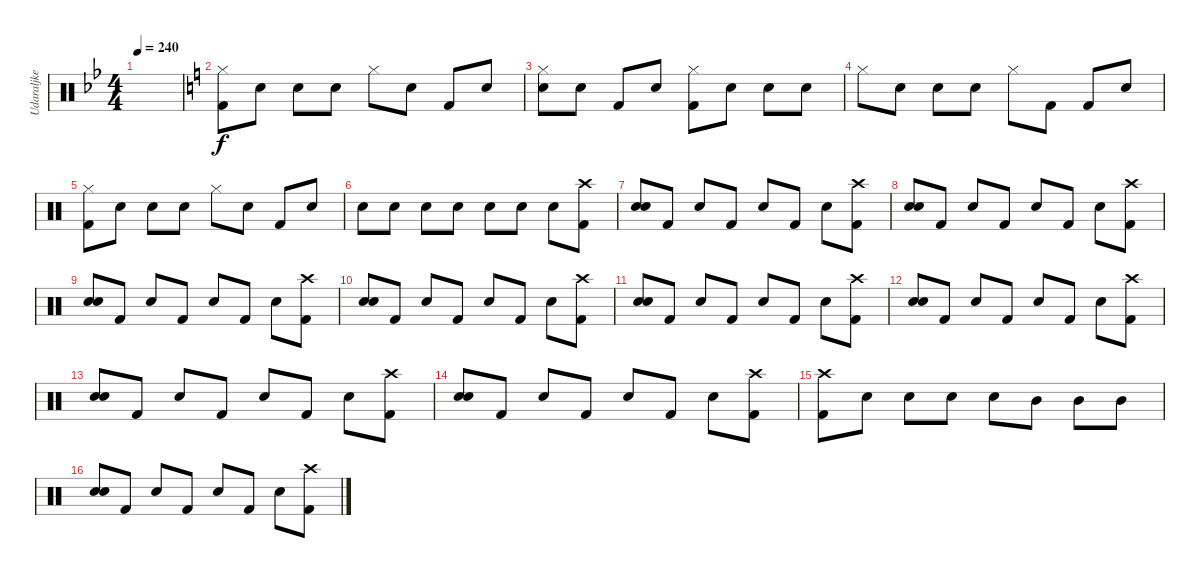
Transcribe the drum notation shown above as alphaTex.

\track ("Udaraljke" "Udaraljke") {instrument percussion}
\staff {score}
\articulation defaults
\ts (4 4)
\tempo 240
\clef neutral
\ks bb
|
\ks c
("Kick (hit) 2" "Hi-Hat (closed)").8 "Snare (hit)"{x}.8 "Snare (hit)"{x}.8 "Snare (hit)"{x}.8 "Hi-Hat (closed)".8 "Snare (hit)"{x}.8 "Kick (hit) 2"{x}.8 "Snare (hit)"{x}.8 |
("Snare (hit) 2" "Hi-Hat (closed)").8 "Snare (hit)"{x}.8 "Kick (hit) 2".8 "Snare (hit)"{x}.8 ("Kick (hit) 2" "Hi-Hat (closed)").8 "Snare (hit)"{x}.8 "Snare (hit)"{x}.8 "Snare (hit)"{x}.8 |
"Hi-Hat (closed)".8 "Snare (hit)"{x}.8 "Snare (hit)"{x}.8 "Snare (hit)"{x}.8 "Hi-Hat (closed)".8 "Kick (hit) 2"{x}.8 "Kick (hit) 2".8 "Snare (hit)"{x}.8 |
("Kick (hit) 2" "Hi-Hat (closed)").8 "Snare (hit)"{x}.8 "Snare (hit)"{x}.8 "Snare (hit)"{x}.8 "Hi-Hat (closed)".8 "Snare (hit)"{x}.8 "Kick (hit) 2"{x}.8 "Snare (hit)"{x}.8 |
"Snare (hit) 2".8 "Snare (hit) 2".8 "Snare (hit) 2".8 "Snare (hit) 2".8 "Snare (hit) 2".8 "Snare (hit) 2".8 "Snare (hit) 2".8 ("Kick (hit) 2" "Crash high (hit)").8 |
("Snare (hit)"{x} "Snare (hit) 2").8 "Kick (hit) 2".8 "Snare (hit) 2".8 "Kick (hit) 2".8 "Snare (hit) 2".8 "Kick (hit) 2".8 "Snare (hit) 2".8 ("Kick (hit) 2" "Crash high (hit)").8 |
("Snare (hit)"{x} "Snare (hit) 2").8 "Kick (hit) 2".8 "Snare (hit) 2".8 "Kick (hit) 2".8 "Snare (hit) 2".8 "Kick (hit) 2".8 "Snare (hit) 2".8 ("Kick (hit) 2" "Crash high (hit)").8 |
("Snare (hit)"{x} "Snare (hit) 2").8 "Kick (hit) 2".8 "Snare (hit) 2".8 "Kick (hit) 2".8 "Snare (hit) 2".8 "Kick (hit) 2".8 "Snare (hit) 2".8 ("Kick (hit) 2" "Crash high (hit)").8 |
("Snare (hit)"{x} "Snare (hit) 2").8 "Kick (hit) 2".8 "Snare (hit) 2".8 "Kick (hit) 2".8 "Snare (hit) 2".8 "Kick (hit) 2".8 "Snare (hit) 2".8 ("Kick (hit) 2" "Crash high (hit)").8 |
("Snare (hit)"{x} "Snare (hit) 2").8 "Kick (hit) 2".8 "Snare (hit) 2".8 "Kick (hit) 2".8 "Snare (hit) 2".8 "Kick (hit) 2".8 "Snare (hit) 2".8 ("Kick (hit) 2" "Crash high (hit)").8 |
("Snare (hit)"{x} "Snare (hit) 2").8 "Kick (hit) 2".8 "Snare (hit) 2".8 "Kick (hit) 2".8 "Snare (hit) 2".8 "Kick (hit) 2".8 "Snare (hit) 2".8 ("Kick (hit) 2" "Crash high (hit)").8 |
("Snare (hit)"{x} "Snare (hit) 2").8 "Kick (hit) 2".8 "Snare (hit) 2".8 "Kick (hit) 2".8 "Snare (hit) 2".8 "Kick (hit) 2".8 "Snare (hit) 2".8 ("Kick (hit) 2" "Crash high (hit)").8 |
("Snare (hit)"{x} "Snare (hit) 2").8 "Kick (hit) 2".8 "Snare (hit) 2".8 "Kick (hit) 2".8 "Snare (hit) 2".8 "Kick (hit) 2".8 "Snare (hit) 2".8 ("Kick (hit) 2" "Crash high (hit)").8 |
("Kick (hit) 2" "Crash high (hit)").8 "Snare (hit) 2"{x}.8 "Snare (hit) 2".8 "Snare (hit) 2".8 "Snare (hit) 2".8 "Mid Tom (hit)".8 "Mid Tom (hit)".8 "Mid Tom (hit)".8 |
("Snare (hit)"{x} "Snare (hit) 2").8 "Kick (hit) 2".8 "Snare (hit) 2".8 "Kick (hit) 2".8 "Snare (hit) 2".8 "Kick (hit) 2".8 "Snare (hit) 2".8 ("Kick (hit) 2" "Crash high (hit)").8
